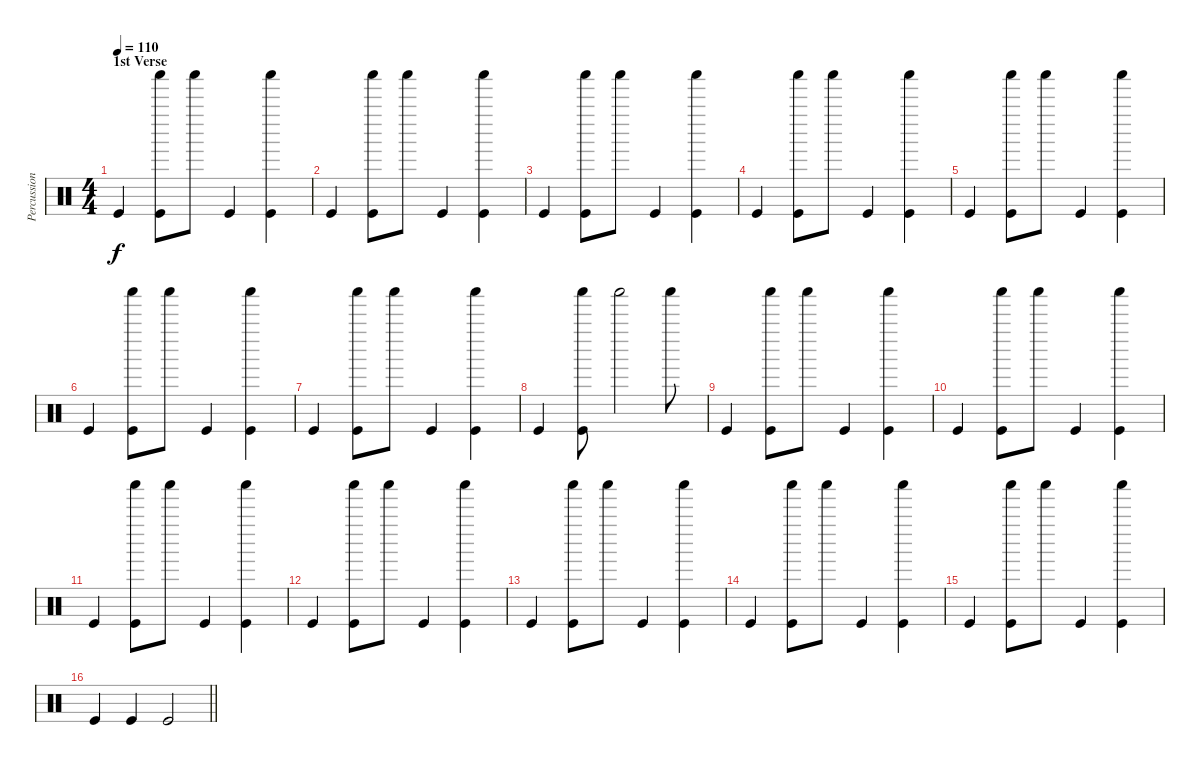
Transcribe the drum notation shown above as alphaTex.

\track ("Percussion" "Percussion") {instrument percussion}
\staff {score}
\articulation defaults
\ts (4 4)
\section ("" "1st Verse")
\tempo 110
\clef neutral
\ks c "Kick (hit)".4{dy f}
("Shaker (hit)" "Kick (hit)").8 "Shaker (hit)".8 "Kick (hit)".4 ("Shaker (hit)" "Kick (hit)").4 |
"Kick (hit)".4 ("Shaker (hit)" "Kick (hit)").8 "Shaker (hit)".8 "Kick (hit)".4 ("Shaker (hit)" "Kick (hit)").4 |
"Kick (hit)".4 ("Shaker (hit)" "Kick (hit)").8 "Shaker (hit)".8 "Kick (hit)".4 ("Shaker (hit)" "Kick (hit)").4 |
"Kick (hit)".4 ("Shaker (hit)" "Kick (hit)").8 "Shaker (hit)".8 "Kick (hit)".4 ("Shaker (hit)" "Kick (hit)").4 |
"Kick (hit)".4 ("Shaker (hit)" "Kick (hit)").8 "Shaker (hit)".8 "Kick (hit)".4 ("Shaker (hit)" "Kick (hit)").4 |
"Kick (hit)".4 ("Shaker (hit)" "Kick (hit)").8 "Shaker (hit)".8 "Kick (hit)".4 ("Shaker (hit)" "Kick (hit)").4 |
"Kick (hit)".4 ("Shaker (hit)" "Kick (hit)").8 "Shaker (hit)".8 "Kick (hit)".4 ("Shaker (hit)" "Kick (hit)").4 |
"Kick (hit)".4 ("Shaker (hit)" "Kick (hit)").8 "Shaker (hit)".2 "Shaker (hit)".8 |
"Kick (hit)".4 ("Shaker (hit)" "Kick (hit)").8 "Shaker (hit)".8 "Kick (hit)".4 ("Shaker (hit)" "Kick (hit)").4 |
"Kick (hit)".4 ("Shaker (hit)" "Kick (hit)").8 "Shaker (hit)".8 "Kick (hit)".4 ("Shaker (hit)" "Kick (hit)").4 |
"Kick (hit)".4 ("Shaker (hit)" "Kick (hit)").8 "Shaker (hit)".8 "Kick (hit)".4 ("Shaker (hit)" "Kick (hit)").4 |
"Kick (hit)".4 ("Shaker (hit)" "Kick (hit)").8 "Shaker (hit)".8 "Kick (hit)".4 ("Shaker (hit)" "Kick (hit)").4 |
"Kick (hit)".4 ("Shaker (hit)" "Kick (hit)").8 "Shaker (hit)".8 "Kick (hit)".4 ("Shaker (hit)" "Kick (hit)").4 |
"Kick (hit)".4 ("Shaker (hit)" "Kick (hit)").8 "Shaker (hit)".8 "Kick (hit)".4 ("Shaker (hit)" "Kick (hit)").4 |
"Kick (hit)".4 ("Shaker (hit)" "Kick (hit)").8 "Shaker (hit)".8 "Kick (hit)".4 ("Shaker (hit)" "Kick (hit)").4 |
\barLineRight lightlight "Kick (hit)".4 "Kick (hit)".4 "Kick (hit)".2
